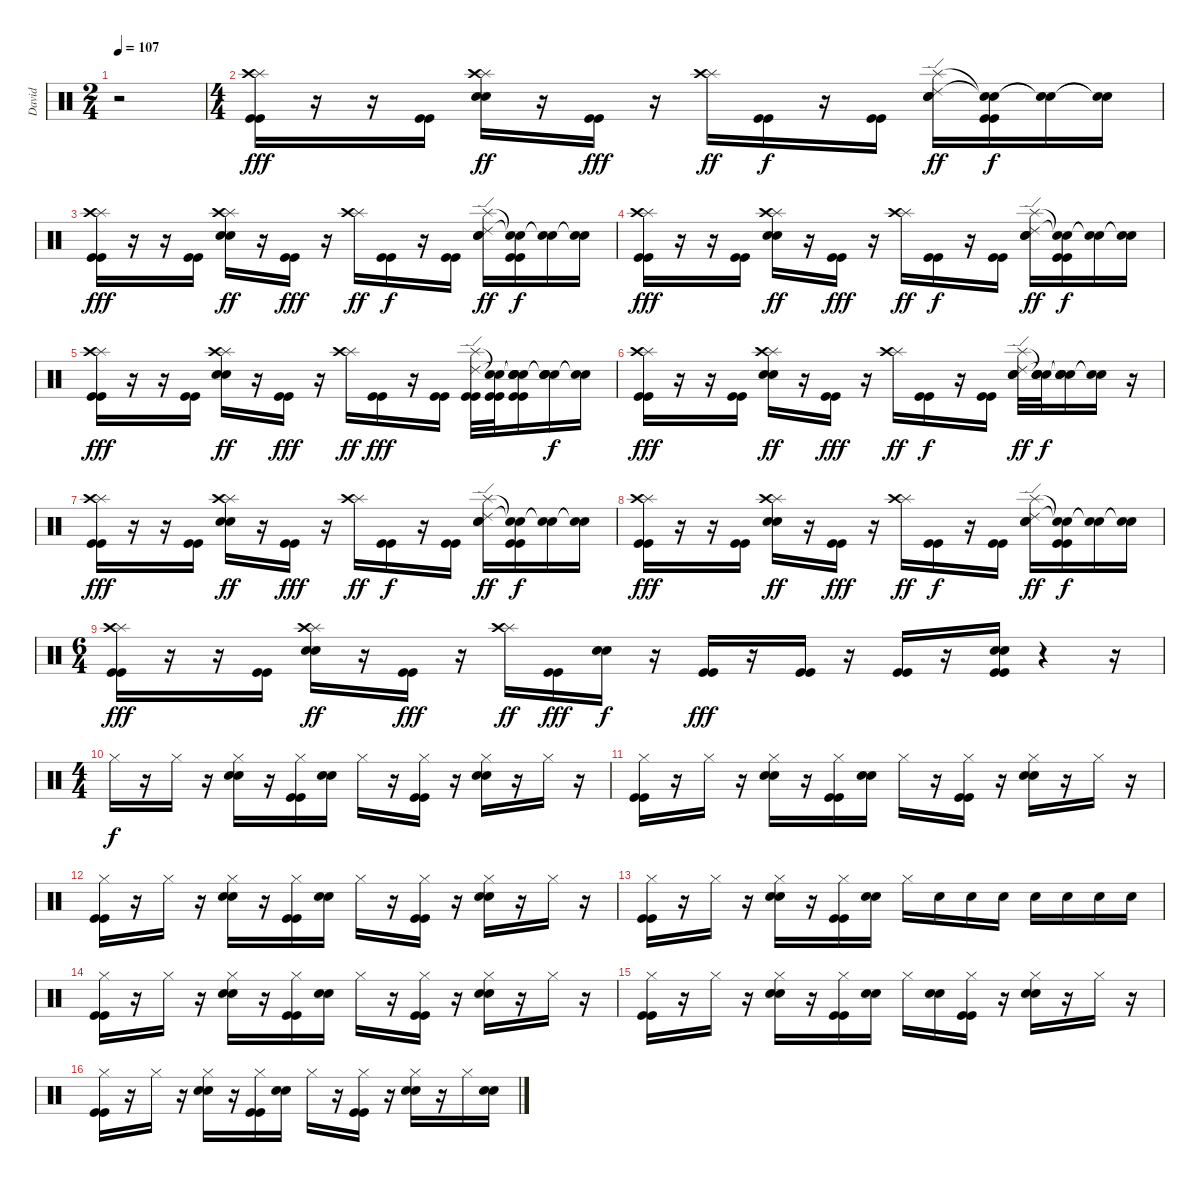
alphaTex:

\track ("David" "David") {instrument percussion}
\staff {score}
\articulation defaults
\ts (2 4)
\tempo 107
\clef neutral
\ks c
r.2{dy f} |
\ts (4 4)
("Splash (hit)" "Crash high (hit)" "Kick (hit)" "Kick (hit)").16{dy fff} r.16 r.16 ("Kick (hit)" "Kick (hit)").16 ("Splash (hit)" "Crash high (hit)" "Electric Snare (hit)" "Electric Snare (hit)").16{dy ff} r.16 ("Kick (hit)" "Kick (hit)").16{dy fff} r.16 ("Splash (hit)" "Crash high (hit)").16{dy ff} ("Kick (hit)" "Kick (hit)").16{dy f} r.16 ("Kick (hit)" "Kick (hit)").16 ("Splash (hit)" "Ride (edge) 2" "Electric Snare (hit)" "Electric Snare (hit)").16{dy ff} ("Snare (hit)"{t} "Snare (hit)"{t} "Kick (hit)" "Kick (hit)").16{dy f} ("Snare (hit)"{t} "Snare (hit)"{t}).16 ("Snare (hit)"{t} "Snare (hit)"{t}).16 |
("Splash (hit)" "Crash high (hit)" "Kick (hit)" "Kick (hit)").16{dy fff} r.16 r.16 ("Kick (hit)" "Kick (hit)").16 ("Splash (hit)" "Crash high (hit)" "Electric Snare (hit)" "Electric Snare (hit)").16{dy ff} r.16 ("Kick (hit)" "Kick (hit)").16{dy fff} r.16 ("Splash (hit)" "Crash high (hit)").16{dy ff} ("Kick (hit)" "Kick (hit)").16{dy f} r.16 ("Kick (hit)" "Kick (hit)").16 ("Splash (hit)" "Ride (edge) 2" "Electric Snare (hit)" "Electric Snare (hit)").16{dy ff} ("Snare (hit)"{t} "Snare (hit)"{t} "Kick (hit)" "Kick (hit)").16{dy f} ("Snare (hit)"{t} "Snare (hit)"{t}).16 ("Snare (hit)"{t} "Snare (hit)"{t}).16 |
("Splash (hit)" "Crash high (hit)" "Kick (hit)" "Kick (hit)").16{dy fff} r.16 r.16 ("Kick (hit)" "Kick (hit)").16 ("Splash (hit)" "Crash high (hit)" "Electric Snare (hit)" "Electric Snare (hit)").16{dy ff} r.16 ("Kick (hit)" "Kick (hit)").16{dy fff} r.16 ("Splash (hit)" "Crash high (hit)").16{dy ff} ("Kick (hit)" "Kick (hit)").16{dy f} r.16 ("Kick (hit)" "Kick (hit)").16 ("Splash (hit)" "Ride (edge) 2" "Electric Snare (hit)" "Electric Snare (hit)").16{dy ff} ("Snare (hit)"{t} "Snare (hit)"{t} "Kick (hit)" "Kick (hit)").16{dy f} ("Snare (hit)"{t} "Snare (hit)"{t}).16 ("Snare (hit)"{t} "Snare (hit)"{t}).16 |
("Splash (hit)" "Crash high (hit)" "Kick (hit)" "Kick (hit)").16{dy fff} r.16 r.16 ("Kick (hit)" "Kick (hit)").16 ("Splash (hit)" "Crash high (hit)" "Electric Snare (hit)" "Electric Snare (hit)").16{dy ff} r.16 ("Kick (hit)" "Kick (hit)").16{dy fff} r.16 ("Splash (hit)" "Crash high (hit)").16{dy ff} ("Kick (hit)" "Kick (hit)").16{dy fff} r.16 ("Kick (hit)" "Kick (hit)").16 ("Splash (hit)" "Ride (edge) 2" "Kick (hit)" "Kick (hit)").32 ("Snare (hit)"{t} "Snare (hit)"{t} "Kick (hit)" "Kick (hit)").32 ("Snare (hit)"{t} "Snare (hit)"{t} "Electric Snare (hit)" "Electric Snare (hit)" "Kick (hit)" "Kick (hit)").16 ("Snare (hit)"{t} "Snare (hit)"{t} "Electric Snare (hit)" "Electric Snare (hit)").16{dy f} ("Snare (hit)"{t} "Snare (hit)"{t}).16 |
("Splash (hit)" "Crash high (hit)" "Kick (hit)" "Kick (hit)").16{dy fff} r.16 r.16 ("Kick (hit)" "Kick (hit)").16 ("Splash (hit)" "Crash high (hit)" "Electric Snare (hit)" "Electric Snare (hit)").16{dy ff} r.16 ("Kick (hit)" "Kick (hit)").16{dy fff} r.16 ("Splash (hit)" "Crash high (hit)").16{dy ff} ("Kick (hit)" "Kick (hit)").16{dy f} r.16 ("Kick (hit)" "Kick (hit)").16 ("Splash (hit)" "Ride (edge) 2" "Electric Snare (hit)" "Electric Snare (hit)").32{dy ff} ("Snare (hit)"{t} "Snare (hit)"{t} "Electric Snare (hit)" "Electric Snare (hit)").32{dy f} ("Snare (hit)"{t} "Snare (hit)"{t} "Electric Snare (hit)" "Electric Snare (hit)").16 ("Snare (hit)"{t} "Snare (hit)"{t}).16 r.16 |
("Splash (hit)" "Crash high (hit)" "Kick (hit)" "Kick (hit)").16{dy fff} r.16 r.16 ("Kick (hit)" "Kick (hit)").16 ("Splash (hit)" "Crash high (hit)" "Electric Snare (hit)" "Electric Snare (hit)").16{dy ff} r.16 ("Kick (hit)" "Kick (hit)").16{dy fff} r.16 ("Splash (hit)" "Crash high (hit)").16{dy ff} ("Kick (hit)" "Kick (hit)").16{dy f} r.16 ("Kick (hit)" "Kick (hit)").16 ("Splash (hit)" "Ride (edge) 2" "Electric Snare (hit)" "Electric Snare (hit)").16{dy ff} ("Snare (hit)"{t} "Snare (hit)"{t} "Kick (hit)" "Kick (hit)").16{dy f} ("Snare (hit)"{t} "Snare (hit)"{t}).16 ("Snare (hit)"{t} "Snare (hit)"{t}).16 |
("Splash (hit)" "Crash high (hit)" "Kick (hit)" "Kick (hit)").16{dy fff} r.16 r.16 ("Kick (hit)" "Kick (hit)").16 ("Splash (hit)" "Crash high (hit)" "Electric Snare (hit)" "Electric Snare (hit)").16{dy ff} r.16 ("Kick (hit)" "Kick (hit)").16{dy fff} r.16 ("Splash (hit)" "Crash high (hit)").16{dy ff} ("Kick (hit)" "Kick (hit)").16{dy f} r.16 ("Kick (hit)" "Kick (hit)").16 ("Splash (hit)" "Ride (edge) 2" "Electric Snare (hit)" "Electric Snare (hit)").16{dy ff} ("Snare (hit)"{t} "Snare (hit)"{t} "Kick (hit)" "Kick (hit)").16{dy f} ("Snare (hit)"{t} "Snare (hit)"{t}).16 ("Snare (hit)"{t} "Snare (hit)"{t}).16 |
\ts (6 4)
("Splash (hit)" "Crash high (hit)" "Kick (hit)" "Kick (hit)").16{dy fff} r.16 r.16 ("Kick (hit)" "Kick (hit)").16 ("Splash (hit)" "Crash high (hit)" "Electric Snare (hit)" "Electric Snare (hit)").16{dy ff} r.16 ("Kick (hit)" "Kick (hit)").16{dy fff} r.16 ("Splash (hit)" "Crash high (hit)").16{dy ff} ("Kick (hit)" "Kick (hit)").16{dy fff} ("Electric Snare (hit)" "Electric Snare (hit)").16{dy f} r.16 ("Kick (hit)" "Kick (hit)").16{dy fff} r.16 ("Kick (hit)" "Kick (hit)").16 r.16 ("Kick (hit)" "Kick (hit)").16 r.16 ("Electric Snare (hit)" "Electric Snare (hit)" "Kick (hit)" "Kick (hit)").16 r.4 r.16 |
\ts (4 4)
"Hi-Hat (closed)".16{dy f} r.16 "Hi-Hat (closed)".16 r.16 ("Hi-Hat (closed)" "Electric Snare (hit)" "Electric Snare (hit)").16 r.16 ("Hi-Hat (closed)" "Kick (hit)" "Kick (hit)").16 ("Electric Snare (hit)" "Electric Snare (hit)").16 "Hi-Hat (closed)".16 r.16 ("Hi-Hat (closed)" "Kick (hit)" "Kick (hit)").16 r.16 ("Hi-Hat (closed)" "Electric Snare (hit)" "Electric Snare (hit)").16 r.16 "Hi-Hat (closed)".16 r.16 |
("Hi-Hat (closed)" "Kick (hit)" "Kick (hit)").16 r.16 "Hi-Hat (closed)".16 r.16 ("Hi-Hat (closed)" "Electric Snare (hit)" "Electric Snare (hit)").16 r.16 ("Hi-Hat (closed)" "Kick (hit)" "Kick (hit)").16 ("Electric Snare (hit)" "Electric Snare (hit)").16 "Hi-Hat (closed)".16 r.16 ("Hi-Hat (closed)" "Kick (hit)" "Kick (hit)").16 r.16 ("Hi-Hat (closed)" "Electric Snare (hit)" "Electric Snare (hit)").16 r.16 "Hi-Hat (closed)".16 r.16 |
("Hi-Hat (closed)" "Kick (hit)" "Kick (hit)").16 r.16 "Hi-Hat (closed)".16 r.16 ("Hi-Hat (closed)" "Electric Snare (hit)" "Electric Snare (hit)").16 r.16 ("Hi-Hat (closed)" "Kick (hit)" "Kick (hit)").16 ("Electric Snare (hit)" "Electric Snare (hit)").16 "Hi-Hat (closed)".16 r.16 ("Hi-Hat (closed)" "Kick (hit)" "Kick (hit)").16 r.16 ("Hi-Hat (closed)" "Electric Snare (hit)" "Electric Snare (hit)").16 r.16 "Hi-Hat (closed)".16 r.16 |
("Hi-Hat (closed)" "Kick (hit)" "Kick (hit)").16 r.16 "Hi-Hat (closed)".16 r.16 ("Hi-Hat (closed)" "Electric Snare (hit)" "Electric Snare (hit)").16 r.16 ("Hi-Hat (closed)" "Kick (hit)" "Kick (hit)").16 ("Electric Snare (hit)" "Electric Snare (hit)").16 "Hi-Hat (closed)".16 "Electric Snare (hit)".16 "Electric Snare (hit)".16 "Electric Snare (hit)".16 "Electric Snare (hit)".16 "Electric Snare (hit)".16 "Electric Snare (hit)".16 "Electric Snare (hit)".16 |
("Hi-Hat (closed)" "Kick (hit)" "Kick (hit)").16 r.16 "Hi-Hat (closed)".16 r.16 ("Hi-Hat (closed)" "Electric Snare (hit)" "Electric Snare (hit)").16 r.16 ("Hi-Hat (closed)" "Kick (hit)" "Kick (hit)").16 ("Electric Snare (hit)" "Electric Snare (hit)").16 "Hi-Hat (closed)".16 r.16 ("Hi-Hat (closed)" "Kick (hit)" "Kick (hit)").16 r.16 ("Hi-Hat (closed)" "Electric Snare (hit)" "Electric Snare (hit)").16 r.16 "Hi-Hat (closed)".16 r.16 |
("Hi-Hat (closed)" "Kick (hit)" "Kick (hit)").16 r.16 "Hi-Hat (closed)".16 r.16 ("Hi-Hat (closed)" "Electric Snare (hit)" "Electric Snare (hit)").16 r.16 ("Hi-Hat (closed)" "Kick (hit)" "Kick (hit)").16 ("Electric Snare (hit)" "Electric Snare (hit)").16 "Hi-Hat (closed)".16 ("Electric Snare (hit)" "Electric Snare (hit)").16 ("Hi-Hat (closed)" "Kick (hit)" "Kick (hit)").16 r.16 ("Hi-Hat (closed)" "Electric Snare (hit)" "Electric Snare (hit)").16 r.16 "Hi-Hat (closed)".16 r.16 |
("Hi-Hat (closed)" "Kick (hit)" "Kick (hit)").16 r.16 "Hi-Hat (closed)".16 r.16 ("Hi-Hat (closed)" "Electric Snare (hit)" "Electric Snare (hit)").16 r.16 ("Hi-Hat (closed)" "Kick (hit)" "Kick (hit)").16 ("Electric Snare (hit)" "Electric Snare (hit)").16 "Hi-Hat (closed)".16 r.16 ("Hi-Hat (closed)" "Kick (hit)" "Kick (hit)").16 r.16 ("Hi-Hat (closed)" "Electric Snare (hit)" "Electric Snare (hit)").16 r.16 "Hi-Hat (closed)".16 ("Electric Snare (hit)" "Electric Snare (hit)").16
